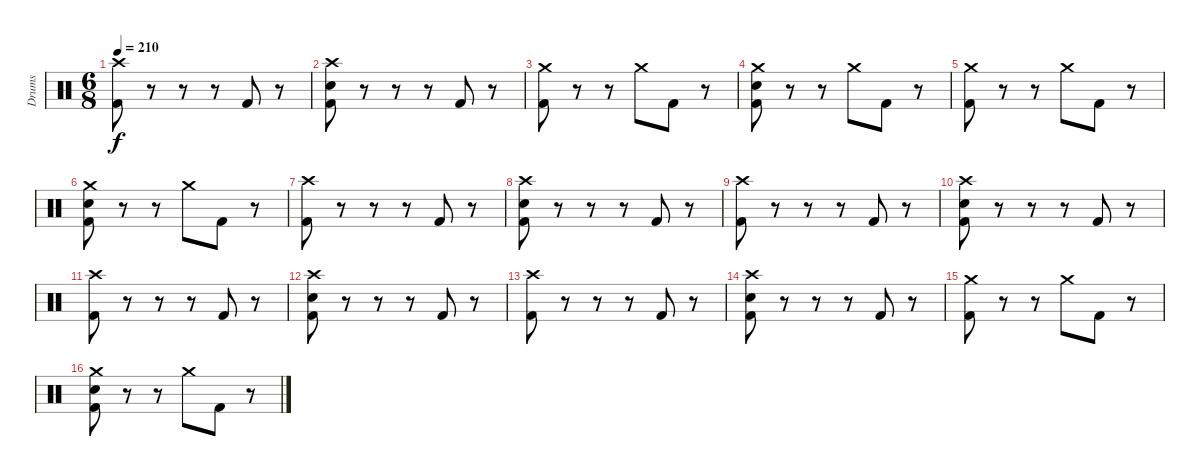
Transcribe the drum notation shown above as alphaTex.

\track ("Drums" "Drums") {instrument percussion}
\staff {score}
\articulation defaults
\ts (6 8)
\tempo 210
\clef neutral
\ks c
("Crash high (hit)" "Kick (hit) 2").8{dy f} r.8 r.8 r.8 "Kick (hit) 2".8 r.8 |
("Crash high (hit)" "Snare (hit) 2" "Kick (hit) 2").8 r.8 r.8 r.8 "Kick (hit) 2".8 r.8 |
("Crash medium (hit)" "Kick (hit) 2").8 r.8 r.8 "Crash medium (hit)".8 "Kick (hit) 2".8 r.8 |
("Crash medium (hit)" "Snare (hit) 2" "Kick (hit) 2").8 r.8 r.8 "Crash medium (hit)".8 "Kick (hit) 2".8 r.8 |
("Crash medium (hit)" "Kick (hit) 2").8 r.8 r.8 "Crash medium (hit)".8 "Kick (hit) 2".8 r.8 |
("Crash medium (hit)" "Snare (hit) 2" "Kick (hit) 2").8 r.8 r.8 "Crash medium (hit)".8 "Kick (hit) 2".8 r.8 |
("Crash high (hit)" "Kick (hit) 2").8 r.8 r.8 r.8 "Kick (hit) 2".8 r.8 |
("Crash high (hit)" "Snare (hit) 2" "Kick (hit) 2").8 r.8 r.8 r.8 "Kick (hit) 2".8 r.8 |
("Crash high (hit)" "Kick (hit) 2").8 r.8 r.8 r.8 "Kick (hit) 2".8 r.8 |
("Crash high (hit)" "Snare (hit) 2" "Kick (hit) 2").8 r.8 r.8 r.8 "Kick (hit) 2".8 r.8 |
("Crash high (hit)" "Kick (hit) 2").8 r.8 r.8 r.8 "Kick (hit) 2".8 r.8 |
("Crash high (hit)" "Snare (hit) 2" "Kick (hit) 2").8 r.8 r.8 r.8 "Kick (hit) 2".8 r.8 |
("Crash high (hit)" "Kick (hit) 2").8 r.8 r.8 r.8 "Kick (hit) 2".8 r.8 |
("Crash high (hit)" "Snare (hit) 2" "Kick (hit) 2").8 r.8 r.8 r.8 "Kick (hit) 2".8 r.8 |
("Crash medium (hit)" "Kick (hit) 2").8 r.8 r.8 "Crash medium (hit)".8 "Kick (hit) 2".8 r.8 |
("Crash medium (hit)" "Snare (hit) 2" "Kick (hit) 2").8 r.8 r.8 "Crash medium (hit)".8 "Kick (hit) 2".8 r.8
